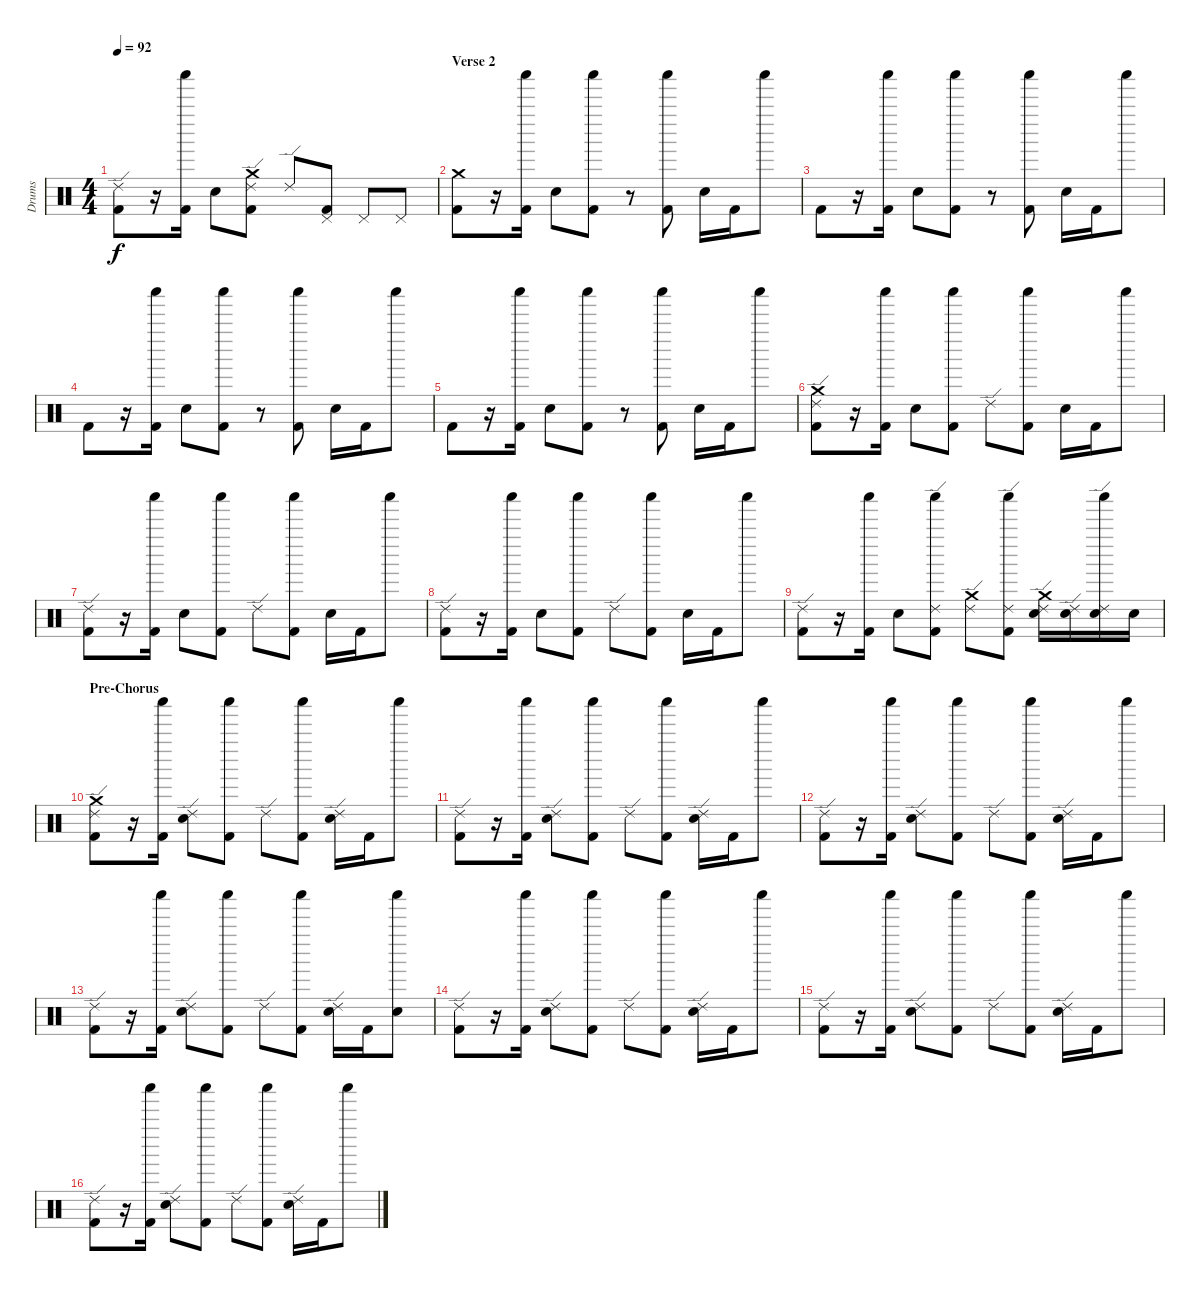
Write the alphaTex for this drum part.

\track ("Drums" "Drums") {instrument percussion}
\staff {score}
\articulation defaults
\ts (4 4)
\tempo 92
\clef neutral
\ks c
("Ride (edge) 2" "Kick (hit) 2").8{dy f} r.16 ("Shaker (hit)" "Kick (hit) 2").16 "Electric Snare (hit)".8 ("Ride (edge) 2" "Crash medium (hit)" "Kick (hit) 2").8 "Ride (edge) 2".8 ("Pedal Hi-Hat (hit)" "Kick (hit) 2").8 "Pedal Hi-Hat (hit)".8 "Pedal Hi-Hat (hit)".8 |
\section ("" "Verse 2")
("Crash medium (hit)" "Kick (hit) 2").8 r.16 ("Shaker (hit)" "Kick (hit) 2").16 "Electric Snare (hit)".8 ("Shaker (hit)" "Kick (hit) 2").8 r.8 ("Shaker (hit)" "Kick (hit) 2").8 "Electric Snare (hit)".16 "Kick (hit) 2".16 "Shaker (hit)".8 |
"Kick (hit) 2".8 r.16 ("Shaker (hit)" "Kick (hit) 2").16 "Electric Snare (hit)".8 ("Shaker (hit)" "Kick (hit) 2").8 r.8 ("Shaker (hit)" "Kick (hit) 2").8 "Electric Snare (hit)".16 "Kick (hit) 2".16 "Shaker (hit)".8 |
"Kick (hit) 2".8 r.16 ("Shaker (hit)" "Kick (hit) 2").16 "Electric Snare (hit)".8 ("Shaker (hit)" "Kick (hit) 2").8 r.8 ("Shaker (hit)" "Kick (hit) 2").8 "Electric Snare (hit)".16 "Kick (hit) 2".16 "Shaker (hit)".8 |
"Kick (hit) 2".8 r.16 ("Shaker (hit)" "Kick (hit) 2").16 "Electric Snare (hit)".8 ("Shaker (hit)" "Kick (hit) 2").8 r.8 ("Shaker (hit)" "Kick (hit) 2").8 "Electric Snare (hit)".16 "Kick (hit) 2".16 "Shaker (hit)".8 |
("Ride (edge) 2" "Crash medium (hit)" "Kick (hit) 2").8 r.16 ("Shaker (hit)" "Kick (hit) 2").16 "Electric Snare (hit)".8 ("Shaker (hit)" "Kick (hit) 2").8 "Ride (edge) 2".8 ("Shaker (hit)" "Kick (hit) 2").8 "Electric Snare (hit)".16 "Kick (hit) 2".16 "Shaker (hit)".8 |
("Ride (edge) 2" "Kick (hit) 2").8 r.16 ("Shaker (hit)" "Kick (hit) 2").16 "Electric Snare (hit)".8 ("Shaker (hit)" "Kick (hit) 2").8 "Ride (edge) 2".8 ("Shaker (hit)" "Kick (hit) 2").8 "Electric Snare (hit)".16 "Kick (hit) 2".16 "Shaker (hit)".8 |
("Ride (edge) 2" "Kick (hit) 2").8 r.16 ("Shaker (hit)" "Kick (hit) 2").16 "Electric Snare (hit)".8 ("Shaker (hit)" "Kick (hit) 2").8 "Ride (edge) 2".8 ("Shaker (hit)" "Kick (hit) 2").8 "Electric Snare (hit)".16 "Kick (hit) 2".16 "Shaker (hit)".8 |
("Ride (edge) 2" "Kick (hit) 2").8 r.16 ("Shaker (hit)" "Kick (hit) 2").16 "Electric Snare (hit)".8 ("Ride (edge) 2" "Shaker (hit)" "Kick (hit) 2").8 ("Ride (edge) 2" "Crash medium (hit)").8 ("Ride (edge) 2" "Shaker (hit)" "Kick (hit) 2").8 ("Ride (edge) 2" "Crash medium (hit)" "Electric Snare (hit)").16 ("Ride (edge) 2" "Electric Snare (hit)").16 ("Ride (edge) 2" "Shaker (hit)" "Electric Snare (hit)").16 "Electric Snare (hit)".16 |
\section ("" "Pre-Chorus")
("Ride (edge) 2" "Crash medium (hit)" "Kick (hit) 2").8 r.16 ("Shaker (hit)" "Kick (hit) 2").16 ("Ride (edge) 2" "Electric Snare (hit)").8 ("Shaker (hit)" "Kick (hit) 2").8 "Ride (edge) 2".8 ("Shaker (hit)" "Kick (hit) 2").8 ("Ride (edge) 2" "Electric Snare (hit)").16 "Kick (hit) 2".16 "Shaker (hit)".8 |
("Ride (edge) 2" "Kick (hit) 2").8 r.16 ("Shaker (hit)" "Kick (hit) 2").16 ("Ride (edge) 2" "Electric Snare (hit)").8 ("Shaker (hit)" "Kick (hit) 2").8 "Ride (edge) 2".8 ("Shaker (hit)" "Kick (hit) 2").8 ("Ride (edge) 2" "Electric Snare (hit)").16 "Kick (hit) 2".16 "Shaker (hit)".8 |
("Ride (edge) 2" "Kick (hit) 2").8 r.16 ("Shaker (hit)" "Kick (hit) 2").16 ("Ride (edge) 2" "Electric Snare (hit)").8 ("Shaker (hit)" "Kick (hit) 2").8 "Ride (edge) 2".8 ("Shaker (hit)" "Kick (hit) 2").8 ("Ride (edge) 2" "Electric Snare (hit)").16 "Kick (hit) 2".16 "Shaker (hit)".8 |
("Ride (edge) 2" "Kick (hit) 2").8 r.16 ("Shaker (hit)" "Kick (hit) 2").16 ("Ride (edge) 2" "Electric Snare (hit)").8 ("Shaker (hit)" "Kick (hit) 2").8 "Ride (edge) 2".8 ("Shaker (hit)" "Kick (hit) 2").8 ("Ride (edge) 2" "Electric Snare (hit)").16 "Kick (hit) 2".16 ("Shaker (hit)" "Electric Snare (hit)").8 |
("Ride (edge) 2" "Kick (hit) 2").8 r.16 ("Shaker (hit)" "Kick (hit) 2").16 ("Ride (edge) 2" "Electric Snare (hit)").8 ("Shaker (hit)" "Kick (hit) 2").8 "Ride (edge) 2".8 ("Shaker (hit)" "Kick (hit) 2").8 ("Ride (edge) 2" "Electric Snare (hit)").16 "Kick (hit) 2".16 "Shaker (hit)".8 |
("Ride (edge) 2" "Kick (hit) 2").8 r.16 ("Shaker (hit)" "Kick (hit) 2").16 ("Ride (edge) 2" "Electric Snare (hit)").8 ("Shaker (hit)" "Kick (hit) 2").8 "Ride (edge) 2".8 ("Shaker (hit)" "Kick (hit) 2").8 ("Ride (edge) 2" "Electric Snare (hit)").16 "Kick (hit) 2".16 "Shaker (hit)".8 |
("Ride (edge) 2" "Kick (hit) 2").8 r.16 ("Shaker (hit)" "Kick (hit) 2").16 ("Ride (edge) 2" "Electric Snare (hit)").8 ("Shaker (hit)" "Kick (hit) 2").8 "Ride (edge) 2".8 ("Shaker (hit)" "Kick (hit) 2").8 ("Ride (edge) 2" "Electric Snare (hit)").16 "Kick (hit) 2".16 "Shaker (hit)".8
